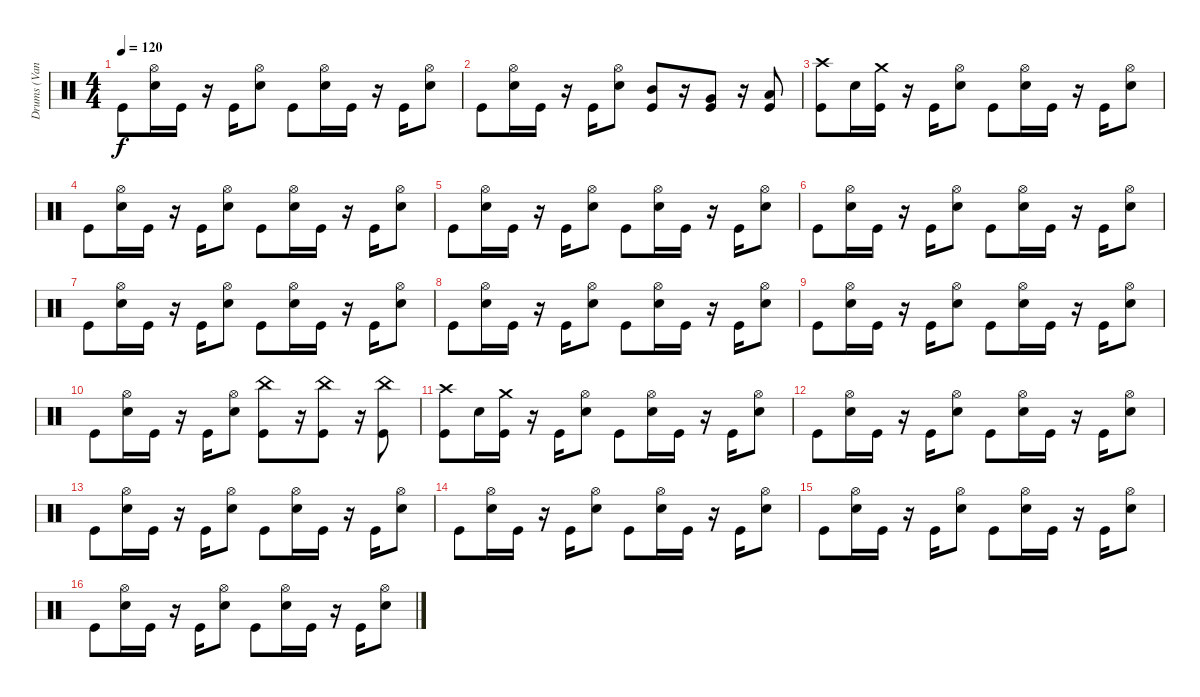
\track ("Drums (Vandel)" "Drums (Van") {instrument percussion}
\staff {score}
\articulation defaults
\ts (4 4)
\tempo 120
\clef neutral
\ks c "Kick (hit)".8{dy f}
("Hi-Hat (open)" "Snare (hit) 2").16 "Kick (hit)".16 r.16 "Kick (hit)".16 ("Hi-Hat (open)" "Snare (hit) 2").8 "Kick (hit)".8 ("Hi-Hat (open)" "Snare (hit) 2").16 "Kick (hit)".16 r.16 "Kick (hit)".16 ("Hi-Hat (open)" "Snare (hit) 2").8 |
"Kick (hit)".8 ("Hi-Hat (open)" "Snare (hit) 2").16 "Kick (hit)".16 r.16 "Kick (hit)".16 ("Hi-Hat (open)" "Snare (hit) 2").8 ("Mid Tom (hit)" "Kick (hit)").8 r.16 ("Very Low Tom (hit)" "Kick (hit)").8 r.16 ("Low Floor Tom (hit)" "Kick (hit)").8 |
("Crash high (hit)" "Kick (hit)").8 "Snare (hit) 2".16 ("Crash medium (hit)" "Kick (hit)").16 r.16 "Kick (hit)".16 ("Hi-Hat (open)" "Snare (hit) 2").8 "Kick (hit)".8 ("Hi-Hat (open)" "Snare (hit) 2").16 "Kick (hit)".16 r.16 "Kick (hit)".16 ("Hi-Hat (open)" "Snare (hit) 2").8 |
"Kick (hit)".8 ("Hi-Hat (open)" "Snare (hit) 2").16 "Kick (hit)".16 r.16 "Kick (hit)".16 ("Hi-Hat (open)" "Snare (hit) 2").8 "Kick (hit)".8 ("Hi-Hat (open)" "Snare (hit) 2").16 "Kick (hit)".16 r.16 "Kick (hit)".16 ("Hi-Hat (open)" "Snare (hit) 2").8 |
"Kick (hit)".8 ("Hi-Hat (open)" "Snare (hit) 2").16 "Kick (hit)".16 r.16 "Kick (hit)".16 ("Hi-Hat (open)" "Snare (hit) 2").8 "Kick (hit)".8 ("Hi-Hat (open)" "Snare (hit) 2").16 "Kick (hit)".16 r.16 "Kick (hit)".16 ("Hi-Hat (open)" "Snare (hit) 2").8 |
"Kick (hit)".8 ("Hi-Hat (open)" "Snare (hit) 2").16 "Kick (hit)".16 r.16 "Kick (hit)".16 ("Hi-Hat (open)" "Snare (hit) 2").8 "Kick (hit)".8 ("Hi-Hat (open)" "Snare (hit) 2").16 "Kick (hit)".16 r.16 "Kick (hit)".16 ("Hi-Hat (open)" "Snare (hit) 2").8 |
"Kick (hit)".8 ("Hi-Hat (open)" "Snare (hit) 2").16 "Kick (hit)".16 r.16 "Kick (hit)".16 ("Hi-Hat (open)" "Snare (hit) 2").8 "Kick (hit)".8 ("Hi-Hat (open)" "Snare (hit) 2").16 "Kick (hit)".16 r.16 "Kick (hit)".16 ("Hi-Hat (open)" "Snare (hit) 2").8 |
"Kick (hit)".8 ("Hi-Hat (open)" "Snare (hit) 2").16 "Kick (hit)".16 r.16 "Kick (hit)".16 ("Hi-Hat (open)" "Snare (hit) 2").8 "Kick (hit)".8 ("Hi-Hat (open)" "Snare (hit) 2").16 "Kick (hit)".16 r.16 "Kick (hit)".16 ("Hi-Hat (open)" "Snare (hit) 2").8 |
"Kick (hit)".8 ("Hi-Hat (open)" "Snare (hit) 2").16 "Kick (hit)".16 r.16 "Kick (hit)".16 ("Hi-Hat (open)" "Snare (hit) 2").8 "Kick (hit)".8 ("Hi-Hat (open)" "Snare (hit) 2").16 "Kick (hit)".16 r.16 "Kick (hit)".16 ("Hi-Hat (open)" "Snare (hit) 2").8 |
"Kick (hit)".8 ("Hi-Hat (open)" "Snare (hit) 2").16 "Kick (hit)".16 r.16 "Kick (hit)".16 ("Hi-Hat (open)" "Snare (hit) 2").8 ("China (hit)" "Kick (hit)").8 r.16 ("China (hit)" "Kick (hit)").8 r.16 ("China (hit)" "Kick (hit)").8 |
("Crash high (hit)" "Kick (hit)").8 "Snare (hit) 2".16 ("Crash medium (hit)" "Kick (hit)").16 r.16 "Kick (hit)".16 ("Hi-Hat (open)" "Snare (hit) 2").8 "Kick (hit)".8 ("Hi-Hat (open)" "Snare (hit) 2").16 "Kick (hit)".16 r.16 "Kick (hit)".16 ("Hi-Hat (open)" "Snare (hit) 2").8 |
"Kick (hit)".8 ("Hi-Hat (open)" "Snare (hit) 2").16 "Kick (hit)".16 r.16 "Kick (hit)".16 ("Hi-Hat (open)" "Snare (hit) 2").8 "Kick (hit)".8 ("Hi-Hat (open)" "Snare (hit) 2").16 "Kick (hit)".16 r.16 "Kick (hit)".16 ("Hi-Hat (open)" "Snare (hit) 2").8 |
"Kick (hit)".8 ("Hi-Hat (open)" "Snare (hit) 2").16 "Kick (hit)".16 r.16 "Kick (hit)".16 ("Hi-Hat (open)" "Snare (hit) 2").8 "Kick (hit)".8 ("Hi-Hat (open)" "Snare (hit) 2").16 "Kick (hit)".16 r.16 "Kick (hit)".16 ("Hi-Hat (open)" "Snare (hit) 2").8 |
"Kick (hit)".8 ("Hi-Hat (open)" "Snare (hit) 2").16 "Kick (hit)".16 r.16 "Kick (hit)".16 ("Hi-Hat (open)" "Snare (hit) 2").8 "Kick (hit)".8 ("Hi-Hat (open)" "Snare (hit) 2").16 "Kick (hit)".16 r.16 "Kick (hit)".16 ("Hi-Hat (open)" "Snare (hit) 2").8 |
"Kick (hit)".8 ("Hi-Hat (open)" "Snare (hit) 2").16 "Kick (hit)".16 r.16 "Kick (hit)".16 ("Hi-Hat (open)" "Snare (hit) 2").8 "Kick (hit)".8 ("Hi-Hat (open)" "Snare (hit) 2").16 "Kick (hit)".16 r.16 "Kick (hit)".16 ("Hi-Hat (open)" "Snare (hit) 2").8 |
"Kick (hit)".8 ("Hi-Hat (open)" "Snare (hit) 2").16 "Kick (hit)".16 r.16 "Kick (hit)".16 ("Hi-Hat (open)" "Snare (hit) 2").8 "Kick (hit)".8 ("Hi-Hat (open)" "Snare (hit) 2").16 "Kick (hit)".16 r.16 "Kick (hit)".16 ("Hi-Hat (open)" "Snare (hit) 2").8
